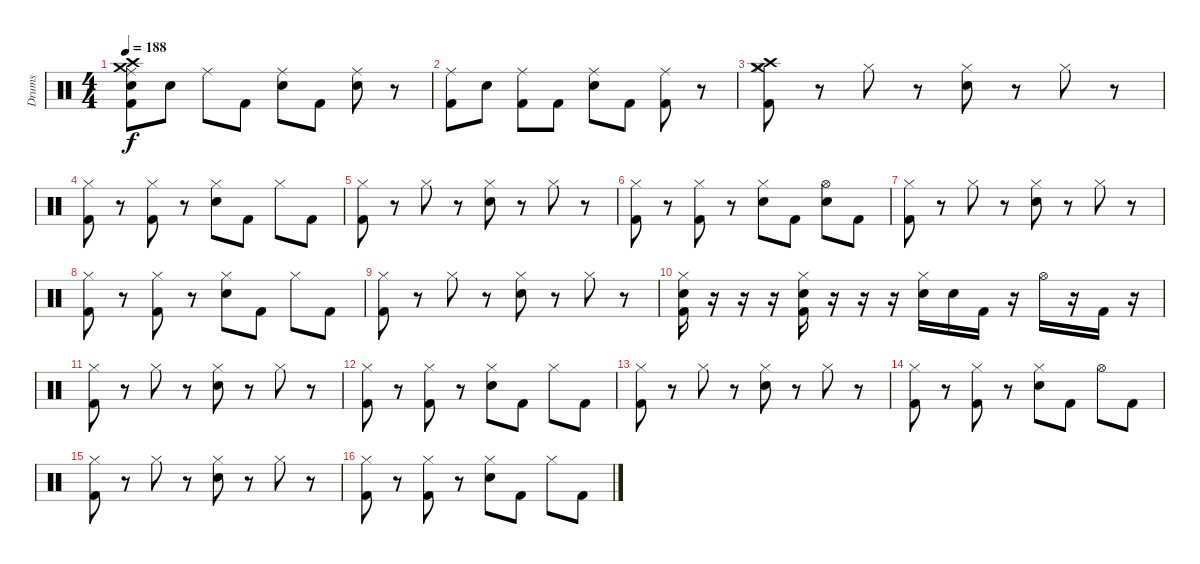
\track ("Drums" "Drums") {instrument percussion}
\staff {score}
\articulation defaults
\ts (4 4)
\tempo 188
\clef neutral
\ks c
("Crash medium (hit)" "Crash high (hit)" "Ride (middle)" "Snare (hit) 2" "Kick (hit) 2").8{dy f} "Snare (hit) 2".8 "Ride (middle)".8 "Kick (hit) 2".8 ("Ride (middle)" "Snare (hit) 2").8 "Kick (hit) 2".8 ("Ride (middle)" "Snare (hit) 2").8 r.8 |
("Ride (middle)" "Kick (hit) 2").8 "Snare (hit) 2".8 ("Ride (middle)" "Kick (hit) 2").8 "Kick (hit) 2".8 ("Ride (middle)" "Snare (hit) 2").8 "Kick (hit) 2".8 ("Ride (middle)" "Kick (hit) 2").8 r.8 |
("Crash medium (hit)" "Crash high (hit)" "Hi-Hat (closed)" "Kick (hit) 2").8 r.8 "Hi-Hat (closed)".8 r.8 ("Hi-Hat (closed)" "Snare (hit) 2").8 r.8 "Hi-Hat (closed)".8 r.8 |
("Hi-Hat (closed)" "Kick (hit) 2").8 r.8 ("Hi-Hat (closed)" "Kick (hit) 2").8 r.8 ("Hi-Hat (closed)" "Snare (hit) 2").8 "Kick (hit) 2".8 "Hi-Hat (closed)".8 "Kick (hit) 2".8 |
("Hi-Hat (closed)" "Kick (hit) 2").8 r.8 "Hi-Hat (closed)".8 r.8 ("Hi-Hat (closed)" "Snare (hit) 2").8 r.8 "Hi-Hat (closed)".8 r.8 |
("Hi-Hat (closed)" "Kick (hit) 2").8 r.8 ("Hi-Hat (closed)" "Kick (hit) 2").8 r.8 ("Hi-Hat (closed)" "Snare (hit) 2").8 "Kick (hit) 2".8 ("Hi-Hat (open)" "Snare (hit) 2").8 "Kick (hit) 2".8 |
("Hi-Hat (closed)" "Kick (hit) 2").8 r.8 "Hi-Hat (closed)".8 r.8 ("Hi-Hat (closed)" "Snare (hit) 2").8 r.8 "Hi-Hat (closed)".8 r.8 |
("Hi-Hat (closed)" "Kick (hit) 2").8 r.8 ("Hi-Hat (closed)" "Kick (hit) 2").8 r.8 ("Hi-Hat (closed)" "Snare (hit) 2").8 "Kick (hit) 2".8 "Hi-Hat (closed)".8 "Kick (hit) 2".8 |
("Hi-Hat (closed)" "Kick (hit) 2").8 r.8 "Hi-Hat (closed)".8 r.8 ("Hi-Hat (closed)" "Snare (hit) 2").8 r.8 "Hi-Hat (closed)".8 r.8 |
("Hi-Hat (closed)" "Snare (hit) 2" "Kick (hit) 2").16 r.16 r.16 r.16 ("Hi-Hat (closed)" "Snare (hit) 2" "Kick (hit) 2").16 r.16 r.16 r.16 ("Hi-Hat (closed)" "Snare (hit) 2").16 "Snare (hit) 2".16 "Kick (hit) 2".16 r.16 "Hi-Hat (open)".16 r.16 "Kick (hit) 2".16 r.16 |
("Hi-Hat (closed)" "Kick (hit) 2").8 r.8 "Hi-Hat (closed)".8 r.8 ("Hi-Hat (closed)" "Snare (hit) 2").8 r.8 "Hi-Hat (closed)".8 r.8 |
("Hi-Hat (closed)" "Kick (hit) 2").8 r.8 ("Hi-Hat (closed)" "Kick (hit) 2").8 r.8 ("Hi-Hat (closed)" "Snare (hit) 2").8 "Kick (hit) 2".8 "Hi-Hat (closed)".8 "Kick (hit) 2".8 |
("Hi-Hat (closed)" "Kick (hit) 2").8 r.8 "Hi-Hat (closed)".8 r.8 ("Hi-Hat (closed)" "Snare (hit) 2").8 r.8 "Hi-Hat (closed)".8 r.8 |
("Hi-Hat (closed)" "Kick (hit) 2").8 r.8 ("Hi-Hat (closed)" "Kick (hit) 2").8 r.8 ("Hi-Hat (closed)" "Snare (hit) 2").8 "Kick (hit) 2".8 "Hi-Hat (open)".8 "Kick (hit) 2".8 |
("Hi-Hat (closed)" "Kick (hit) 2").8 r.8 "Hi-Hat (closed)".8 r.8 ("Hi-Hat (closed)" "Snare (hit) 2").8 r.8 "Hi-Hat (closed)".8 r.8 |
("Hi-Hat (closed)" "Kick (hit) 2").8 r.8 ("Hi-Hat (closed)" "Kick (hit) 2").8 r.8 ("Hi-Hat (closed)" "Snare (hit) 2").8 "Kick (hit) 2".8 "Hi-Hat (closed)".8 "Kick (hit) 2".8
